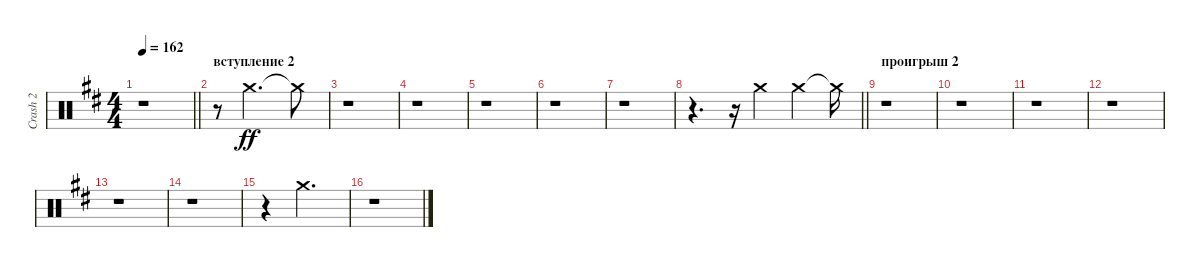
\track ("Сrash 2" "Сrash 2") {instrument percussion}
\staff {score}
\articulation defaults
\ts (4 4)
\tempo 162
\clef neutral
\barLineRight lightlight
\ks bminor
r.1{dy ff} |
\section ("" "вступление 2")
r.8 "Crash medium (hit)".2{d} "Crash medium (hit)"{t}.8 |
r.1 |
r.1 |
r.1 |
r.1 |
r.1 |
\barLineRight lightlight
r.4{d} r.16 "Crash medium (hit)".4 "Crash medium (hit)".4 "Crash medium (hit)"{t}.16 |
\section ("" "проигрыш 2")
r.1 |
r.1 |
r.1 |
r.1 |
r.1 |
r.1 |
r.4 "Crash medium (hit)".2{d} |
r.1
